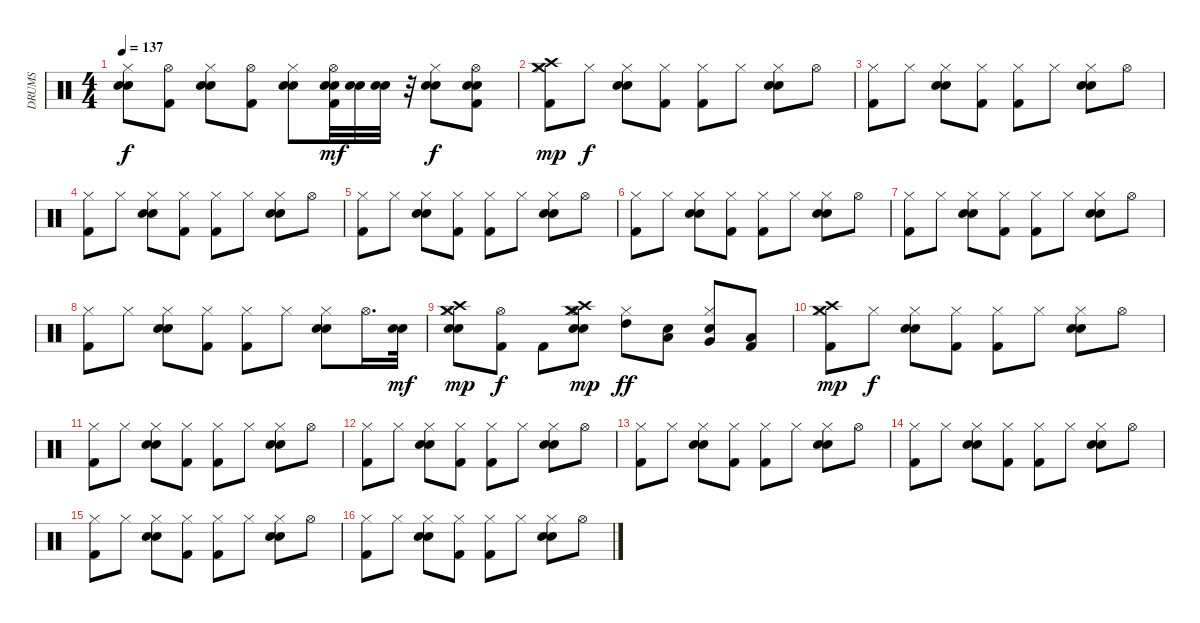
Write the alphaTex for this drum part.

\track ("DRUMS" "DRUMS") {instrument percussion}
\staff {score}
\articulation defaults
\ts (4 4)
\tempo 137
\clef neutral
\ks c
("Snare (hit) 2" "Electric Snare (hit)" "Hi-Hat (closed)").8{dy f} ("Hi-Hat (open)" "Kick (hit) 2").8 ("Snare (hit) 2" "Electric Snare (hit)" "Hi-Hat (closed)").8 ("Hi-Hat (open)" "Kick (hit) 2").8 ("Snare (hit) 2" "Electric Snare (hit)" "Hi-Hat (closed)").8 ("Hi-Hat (open)" "Electric Snare (hit)" "Snare (hit) 2" "Kick (hit) 2").32{dy mf} ("Electric Snare (hit)" "Snare (hit) 2").32 ("Snare (hit) 2" "Electric Snare (hit)").32 r.32 ("Snare (hit) 2" "Electric Snare (hit)" "Hi-Hat (closed)").8{dy f} ("Snare (hit) 2" "Electric Snare (hit)" "Hi-Hat (open)" "Kick (hit) 2").8 |
("Crash high (hit)" "Crash medium (hit)" "Hi-Hat (closed)" "Kick (hit) 2").8{dy mp} "Hi-Hat (closed)".8{dy f} ("Hi-Hat (closed)" "Electric Snare (hit)" "Snare (hit) 2").8 ("Hi-Hat (closed)" "Kick (hit) 2").8 ("Hi-Hat (closed)" "Kick (hit) 2").8 "Hi-Hat (closed)".8 ("Hi-Hat (closed)" "Electric Snare (hit)" "Snare (hit) 2").8 "Hi-Hat (open)".8 |
("Hi-Hat (closed)" "Kick (hit) 2").8 "Hi-Hat (closed)".8 ("Hi-Hat (closed)" "Electric Snare (hit)" "Snare (hit) 2").8 ("Hi-Hat (closed)" "Kick (hit) 2").8 ("Hi-Hat (closed)" "Kick (hit) 2").8 "Hi-Hat (closed)".8 ("Hi-Hat (closed)" "Electric Snare (hit)" "Snare (hit) 2").8 "Hi-Hat (open)".8 |
("Hi-Hat (closed)" "Kick (hit) 2").8 "Hi-Hat (closed)".8 ("Hi-Hat (closed)" "Electric Snare (hit)" "Snare (hit) 2").8 ("Hi-Hat (closed)" "Kick (hit) 2").8 ("Hi-Hat (closed)" "Kick (hit) 2").8 "Hi-Hat (closed)".8 ("Hi-Hat (closed)" "Electric Snare (hit)" "Snare (hit) 2").8 "Hi-Hat (open)".8 |
("Hi-Hat (closed)" "Kick (hit) 2").8 "Hi-Hat (closed)".8 ("Hi-Hat (closed)" "Electric Snare (hit)" "Snare (hit) 2").8 ("Hi-Hat (closed)" "Kick (hit) 2").8 ("Hi-Hat (closed)" "Kick (hit) 2").8 "Hi-Hat (closed)".8 ("Hi-Hat (closed)" "Electric Snare (hit)" "Snare (hit) 2").8 "Hi-Hat (open)".8 |
("Hi-Hat (closed)" "Kick (hit) 2").8 "Hi-Hat (closed)".8 ("Hi-Hat (closed)" "Electric Snare (hit)" "Snare (hit) 2").8 ("Hi-Hat (closed)" "Kick (hit) 2").8 ("Hi-Hat (closed)" "Kick (hit) 2").8 "Hi-Hat (closed)".8 ("Hi-Hat (closed)" "Electric Snare (hit)" "Snare (hit) 2").8 "Hi-Hat (open)".8 |
("Hi-Hat (closed)" "Kick (hit) 2").8 "Hi-Hat (closed)".8 ("Hi-Hat (closed)" "Electric Snare (hit)" "Snare (hit) 2").8 ("Hi-Hat (closed)" "Kick (hit) 2").8 ("Hi-Hat (closed)" "Kick (hit) 2").8 "Hi-Hat (closed)".8 ("Hi-Hat (closed)" "Electric Snare (hit)" "Snare (hit) 2").8 "Hi-Hat (open)".8 |
("Hi-Hat (closed)" "Kick (hit) 2").8 "Hi-Hat (closed)".8 ("Hi-Hat (closed)" "Electric Snare (hit)" "Snare (hit) 2").8 ("Hi-Hat (closed)" "Kick (hit) 2").8 ("Hi-Hat (closed)" "Kick (hit) 2").8 "Hi-Hat (closed)".8 ("Hi-Hat (closed)" "Electric Snare (hit)" "Snare (hit) 2").8 "Hi-Hat (open)".16{d} ("Snare (hit) 2" "Electric Snare (hit)").32{dy mf} |
("Snare (hit) 2" "Electric Snare (hit)" "Hi-Hat (closed)" "Crash high (hit)" "Crash medium (hit)").8{dy mp} ("Hi-Hat (open)" "Kick (hit) 2").8{dy f} "Kick (hit) 2".8 ("Snare (hit) 2" "Electric Snare (hit)" "Hi-Hat (closed)" "Crash high (hit)" "Crash medium (hit)" "Hi-Hat (open)").8{dy mp} ("High Tom (hit)" "Hi-Hat (closed)").8{dy ff} ("Electric Snare (hit)" "Low Tom (hit)").8 ("Electric Snare (hit)" "Very Low Tom (hit)" "Hi-Hat (closed)").8 ("Low Floor Tom (hit)" "Kick (hit) 2").8 |
("Hi-Hat (closed)" "Crash high (hit)" "Crash medium (hit)" "Kick (hit) 2").8{dy mp} "Hi-Hat (closed)".8{dy f} ("Hi-Hat (closed)" "Electric Snare (hit)" "Snare (hit) 2").8 ("Hi-Hat (closed)" "Kick (hit) 2").8 ("Hi-Hat (closed)" "Kick (hit) 2").8 "Hi-Hat (closed)".8 ("Hi-Hat (closed)" "Electric Snare (hit)" "Snare (hit) 2").8 "Hi-Hat (open)".8 |
("Hi-Hat (closed)" "Kick (hit) 2").8 "Hi-Hat (closed)".8 ("Hi-Hat (closed)" "Electric Snare (hit)" "Snare (hit) 2").8 ("Hi-Hat (closed)" "Kick (hit) 2").8 ("Hi-Hat (closed)" "Kick (hit) 2").8 "Hi-Hat (closed)".8 ("Hi-Hat (closed)" "Electric Snare (hit)" "Snare (hit) 2").8 "Hi-Hat (open)".8 |
("Hi-Hat (closed)" "Kick (hit) 2").8 "Hi-Hat (closed)".8 ("Electric Snare (hit)" "Snare (hit) 2" "Hi-Hat (closed)").8 ("Hi-Hat (closed)" "Kick (hit) 2").8 ("Hi-Hat (closed)" "Kick (hit) 2").8 "Hi-Hat (closed)".8 ("Electric Snare (hit)" "Snare (hit) 2" "Hi-Hat (closed)").8 "Hi-Hat (open)".8 |
("Hi-Hat (closed)" "Kick (hit) 2").8 "Hi-Hat (closed)".8 ("Electric Snare (hit)" "Snare (hit) 2" "Hi-Hat (closed)").8 ("Hi-Hat (closed)" "Kick (hit) 2").8 ("Hi-Hat (closed)" "Kick (hit) 2").8 "Hi-Hat (closed)".8 ("Electric Snare (hit)" "Snare (hit) 2" "Hi-Hat (closed)").8 "Hi-Hat (open)".8 |
("Hi-Hat (closed)" "Kick (hit) 2").8 "Hi-Hat (closed)".8 ("Electric Snare (hit)" "Snare (hit) 2" "Hi-Hat (closed)").8 ("Hi-Hat (closed)" "Kick (hit) 2").8 ("Hi-Hat (closed)" "Kick (hit) 2").8 "Hi-Hat (closed)".8 ("Electric Snare (hit)" "Snare (hit) 2" "Hi-Hat (closed)").8 "Hi-Hat (open)".8 |
("Hi-Hat (closed)" "Kick (hit) 2").8 "Hi-Hat (closed)".8 ("Electric Snare (hit)" "Snare (hit) 2" "Hi-Hat (closed)").8 ("Hi-Hat (closed)" "Kick (hit) 2").8 ("Hi-Hat (closed)" "Kick (hit) 2").8 "Hi-Hat (closed)".8 ("Electric Snare (hit)" "Snare (hit) 2" "Hi-Hat (closed)").8 "Hi-Hat (open)".8 |
("Hi-Hat (closed)" "Kick (hit) 2").8 "Hi-Hat (closed)".8 ("Electric Snare (hit)" "Snare (hit) 2" "Hi-Hat (closed)").8 ("Hi-Hat (closed)" "Kick (hit) 2").8 ("Hi-Hat (closed)" "Kick (hit) 2").8 "Hi-Hat (closed)".8 ("Electric Snare (hit)" "Snare (hit) 2" "Hi-Hat (closed)").8 "Hi-Hat (open)".8
